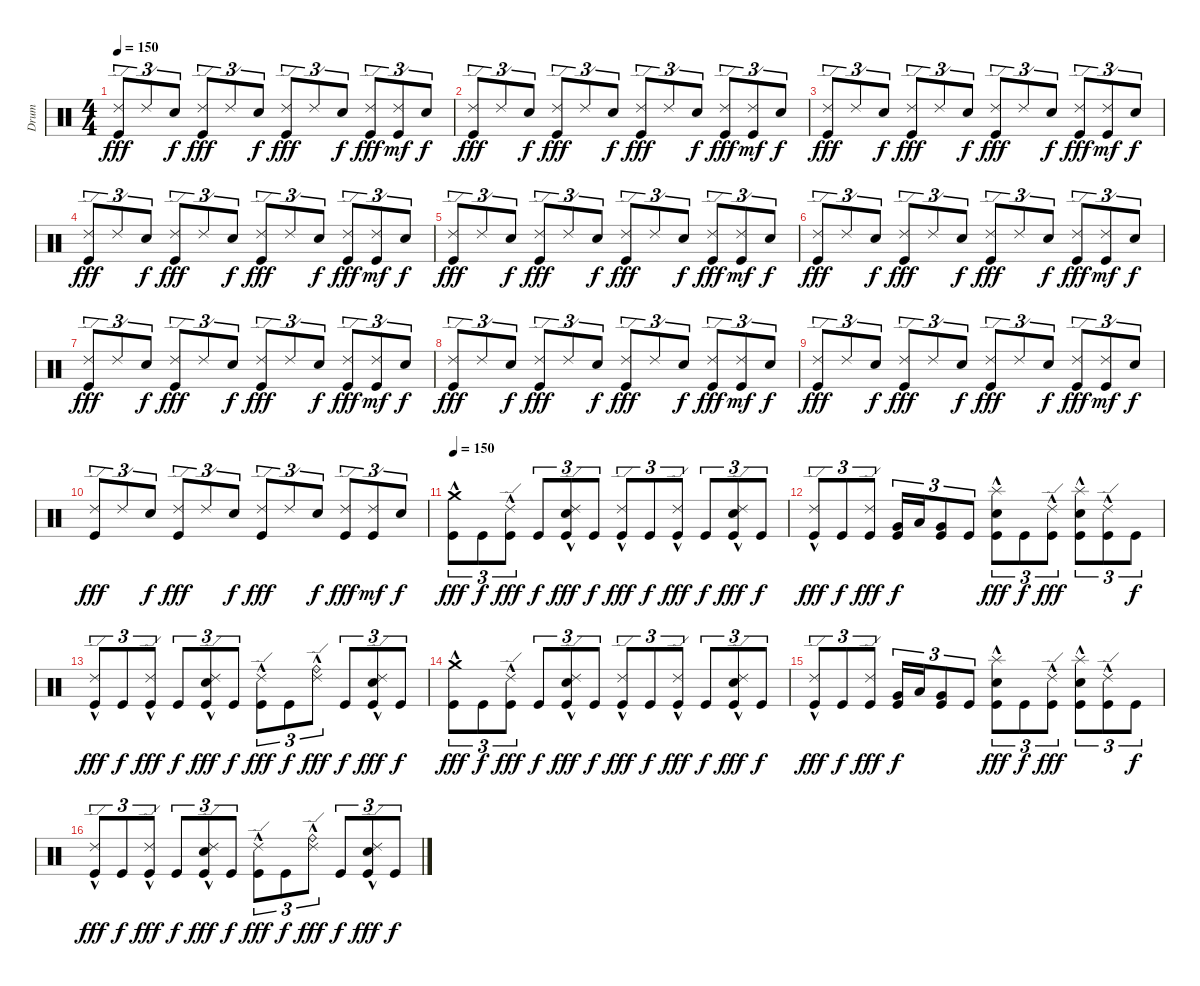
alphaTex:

\track ("Drum" "Drum") {instrument percussion}
\staff {score}
\articulation defaults
\ts (4 4)
\tempo 150
\clef neutral
\ks c
("Ride (edge) 2" "Kick (hit)").8{tu (3 2) dy fff} "Ride (edge) 2".8{tu (3 2)} "Snare (hit) 2".8{tu (3 2) dy f} ("Ride (edge) 2" "Kick (hit)").8{tu (3 2) dy fff} "Ride (edge) 2".8{tu (3 2)} "Snare (hit) 2".8{tu (3 2) dy f} ("Ride (edge) 2" "Kick (hit)").8{tu (3 2) dy fff} "Ride (edge) 2".8{tu (3 2)} "Snare (hit) 2".8{tu (3 2) dy f} ("Ride (edge) 2" "Kick (hit)").8{tu (3 2) dy fff} ("Ride (edge) 2" "Kick (hit)").8{tu (3 2) dy mf} "Snare (hit) 2".8{tu (3 2) dy f} |
("Ride (edge) 2" "Kick (hit)").8{tu (3 2) dy fff} "Ride (edge) 2".8{tu (3 2)} "Snare (hit) 2".8{tu (3 2) dy f} ("Ride (edge) 2" "Kick (hit)").8{tu (3 2) dy fff} "Ride (edge) 2".8{tu (3 2)} "Snare (hit) 2".8{tu (3 2) dy f} ("Ride (edge) 2" "Kick (hit)").8{tu (3 2) dy fff} "Ride (edge) 2".8{tu (3 2)} "Snare (hit) 2".8{tu (3 2) dy f} ("Ride (edge) 2" "Kick (hit)").8{tu (3 2) dy fff} ("Ride (edge) 2" "Kick (hit)").8{tu (3 2) dy mf} "Snare (hit) 2".8{tu (3 2) dy f} |
("Ride (edge) 2" "Kick (hit)").8{tu (3 2) dy fff} "Ride (edge) 2".8{tu (3 2)} "Snare (hit) 2".8{tu (3 2) dy f} ("Ride (edge) 2" "Kick (hit)").8{tu (3 2) dy fff} "Ride (edge) 2".8{tu (3 2)} "Snare (hit) 2".8{tu (3 2) dy f} ("Ride (edge) 2" "Kick (hit)").8{tu (3 2) dy fff} "Ride (edge) 2".8{tu (3 2)} "Snare (hit) 2".8{tu (3 2) dy f} ("Ride (edge) 2" "Kick (hit)").8{tu (3 2) dy fff} ("Ride (edge) 2" "Kick (hit)").8{tu (3 2) dy mf} "Snare (hit) 2".8{tu (3 2) dy f} |
("Ride (edge) 2" "Kick (hit)").8{tu (3 2) dy fff} "Ride (edge) 2".8{tu (3 2)} "Snare (hit) 2".8{tu (3 2) dy f} ("Ride (edge) 2" "Kick (hit)").8{tu (3 2) dy fff} "Ride (edge) 2".8{tu (3 2)} "Snare (hit) 2".8{tu (3 2) dy f} ("Ride (edge) 2" "Kick (hit)").8{tu (3 2) dy fff} "Ride (edge) 2".8{tu (3 2)} "Snare (hit) 2".8{tu (3 2) dy f} ("Ride (edge) 2" "Kick (hit)").8{tu (3 2) dy fff} ("Ride (edge) 2" "Kick (hit)").8{tu (3 2) dy mf} "Snare (hit) 2".8{tu (3 2) dy f} |
("Ride (edge) 2" "Kick (hit)").8{tu (3 2) dy fff} "Ride (edge) 2".8{tu (3 2)} "Snare (hit) 2".8{tu (3 2) dy f} ("Ride (edge) 2" "Kick (hit)").8{tu (3 2) dy fff} "Ride (edge) 2".8{tu (3 2)} "Snare (hit) 2".8{tu (3 2) dy f} ("Ride (edge) 2" "Kick (hit)").8{tu (3 2) dy fff} "Ride (edge) 2".8{tu (3 2)} "Snare (hit) 2".8{tu (3 2) dy f} ("Ride (edge) 2" "Kick (hit)").8{tu (3 2) dy fff} ("Ride (edge) 2" "Kick (hit)").8{tu (3 2) dy mf} "Snare (hit) 2".8{tu (3 2) dy f} |
("Ride (edge) 2" "Kick (hit)").8{tu (3 2) dy fff} "Ride (edge) 2".8{tu (3 2)} "Snare (hit) 2".8{tu (3 2) dy f} ("Ride (edge) 2" "Kick (hit)").8{tu (3 2) dy fff} "Ride (edge) 2".8{tu (3 2)} "Snare (hit) 2".8{tu (3 2) dy f} ("Ride (edge) 2" "Kick (hit)").8{tu (3 2) dy fff} "Ride (edge) 2".8{tu (3 2)} "Snare (hit) 2".8{tu (3 2) dy f} ("Ride (edge) 2" "Kick (hit)").8{tu (3 2) dy fff} ("Ride (edge) 2" "Kick (hit)").8{tu (3 2) dy mf} "Snare (hit) 2".8{tu (3 2) dy f} |
("Ride (edge) 2" "Kick (hit)").8{tu (3 2) dy fff} "Ride (edge) 2".8{tu (3 2)} "Snare (hit) 2".8{tu (3 2) dy f} ("Ride (edge) 2" "Kick (hit)").8{tu (3 2) dy fff} "Ride (edge) 2".8{tu (3 2)} "Snare (hit) 2".8{tu (3 2) dy f} ("Ride (edge) 2" "Kick (hit)").8{tu (3 2) dy fff} "Ride (edge) 2".8{tu (3 2)} "Snare (hit) 2".8{tu (3 2) dy f} ("Ride (edge) 2" "Kick (hit)").8{tu (3 2) dy fff} ("Ride (edge) 2" "Kick (hit)").8{tu (3 2) dy mf} "Snare (hit) 2".8{tu (3 2) dy f} |
("Ride (edge) 2" "Kick (hit)").8{tu (3 2) dy fff} "Ride (edge) 2".8{tu (3 2)} "Snare (hit) 2".8{tu (3 2) dy f} ("Ride (edge) 2" "Kick (hit)").8{tu (3 2) dy fff} "Ride (edge) 2".8{tu (3 2)} "Snare (hit) 2".8{tu (3 2) dy f} ("Ride (edge) 2" "Kick (hit)").8{tu (3 2) dy fff} "Ride (edge) 2".8{tu (3 2)} "Snare (hit) 2".8{tu (3 2) dy f} ("Ride (edge) 2" "Kick (hit)").8{tu (3 2) dy fff} ("Ride (edge) 2" "Kick (hit)").8{tu (3 2) dy mf} "Snare (hit) 2".8{tu (3 2) dy f} |
("Ride (edge) 2" "Kick (hit)").8{tu (3 2) dy fff} "Ride (edge) 2".8{tu (3 2)} "Snare (hit) 2".8{tu (3 2) dy f} ("Ride (edge) 2" "Kick (hit)").8{tu (3 2) dy fff} "Ride (edge) 2".8{tu (3 2)} "Snare (hit) 2".8{tu (3 2) dy f} ("Ride (edge) 2" "Kick (hit)").8{tu (3 2) dy fff} "Ride (edge) 2".8{tu (3 2)} "Snare (hit) 2".8{tu (3 2) dy f} ("Ride (edge) 2" "Kick (hit)").8{tu (3 2) dy fff} ("Ride (edge) 2" "Kick (hit)").8{tu (3 2) dy mf} "Snare (hit) 2".8{tu (3 2) dy f} |
("Ride (edge) 2" "Kick (hit)").8{tu (3 2) dy fff} "Ride (edge) 2".8{tu (3 2)} "Snare (hit) 2".8{tu (3 2) dy f} ("Ride (edge) 2" "Kick (hit)").8{tu (3 2) dy fff} "Ride (edge) 2".8{tu (3 2)} "Snare (hit) 2".8{tu (3 2) dy f} ("Ride (edge) 2" "Kick (hit)").8{tu (3 2) dy fff} "Ride (edge) 2".8{tu (3 2)} "Snare (hit) 2".8{tu (3 2) dy f} ("Ride (edge) 2" "Kick (hit)").8{tu (3 2) dy fff} ("Ride (edge) 2" "Kick (hit)").8{tu (3 2) dy mf} "Snare (hit) 2".8{tu (3 2) dy f} |
\tempo 150
("Crash medium (hit)"{hac} "Kick (hit)").8{tu (3 2) dy fff} "Kick (hit)".8{tu (3 2) dy f} ("Ride (edge) 2"{hac} "Kick (hit)").8{tu (3 2) dy fff} "Kick (hit)".8{tu (3 2) dy f} ("Ride (edge) 2"{hac} "Snare (hit) 2" "Kick (hit)").8{tu (3 2) dy fff} "Kick (hit)".8{tu (3 2) dy f} ("Ride (edge) 2"{hac} "Kick (hit)").8{tu (3 2) dy fff} "Kick (hit)".8{tu (3 2) dy f} ("Ride (edge) 2"{hac} "Kick (hit)").8{tu (3 2) dy fff} "Kick (hit)".8{tu (3 2) dy f} ("Ride (edge) 2"{hac} "Snare (hit) 2" "Kick (hit)").8{tu (3 2) dy fff} "Kick (hit)".8{tu (3 2) dy f} |
("Ride (edge) 2"{hac} "Kick (hit)").8{tu (3 2) dy fff} "Kick (hit)".8{tu (3 2) dy f} ("Ride (edge) 2" "Kick (hit)").8{tu (3 2) dy fff} ("Very Low Tom (hit)" "Kick (hit)").16{tu (3 2) dy f} "Low Floor Tom (hit)".16{tu (3 2)} ("Very Low Tom (hit)" "Kick (hit)").8{tu (3 2)} "Kick (hit)".8{tu (3 2)} ("Splash (hit)"{hac} "Snare (hit) 2" "Kick (hit)").8{tu (3 2) dy fff} "Kick (hit)".8{tu (3 2) dy f} ("Ride (edge) 2"{hac} "Kick (hit)").8{tu (3 2) dy fff} ("Splash (hit)"{hac} "Snare (hit) 2" "Kick (hit)").8{tu (3 2)} ("Ride (edge) 2"{hac} "Kick (hit)").8{tu (3 2)} "Kick (hit)".8{tu (3 2) dy f} |
("Ride (edge) 2"{hac} "Kick (hit)").8{tu (3 2) dy fff} "Kick (hit)".8{tu (3 2) dy f} ("Ride (edge) 2"{hac} "Kick (hit)").8{tu (3 2) dy fff} "Kick (hit)".8{tu (3 2) dy f} ("Ride (edge) 2"{hac} "Snare (hit) 2" "Kick (hit)").8{tu (3 2) dy fff} "Kick (hit)".8{tu (3 2) dy f} ("Ride (edge) 2"{hac} "Kick (hit)").8{tu (3 2) dy fff} "Kick (hit)".8{tu (3 2) dy f} ("Ride (edge) 2"{hac} "Ride (bell)").8{tu (3 2) dy fff} "Kick (hit)".8{tu (3 2) dy f} ("Ride (edge) 2"{hac} "Snare (hit) 2" "Kick (hit)").8{tu (3 2) dy fff} "Kick (hit)".8{tu (3 2) dy f} |
("Crash medium (hit)"{hac} "Kick (hit)").8{tu (3 2) dy fff} "Kick (hit)".8{tu (3 2) dy f} ("Ride (edge) 2"{hac} "Kick (hit)").8{tu (3 2) dy fff} "Kick (hit)".8{tu (3 2) dy f} ("Ride (edge) 2"{hac} "Snare (hit) 2" "Kick (hit)").8{tu (3 2) dy fff} "Kick (hit)".8{tu (3 2) dy f} ("Ride (edge) 2"{hac} "Kick (hit)").8{tu (3 2) dy fff} "Kick (hit)".8{tu (3 2) dy f} ("Ride (edge) 2"{hac} "Kick (hit)").8{tu (3 2) dy fff} "Kick (hit)".8{tu (3 2) dy f} ("Ride (edge) 2"{hac} "Snare (hit) 2" "Kick (hit)").8{tu (3 2) dy fff} "Kick (hit)".8{tu (3 2) dy f} |
("Ride (edge) 2"{hac} "Kick (hit)").8{tu (3 2) dy fff} "Kick (hit)".8{tu (3 2) dy f} ("Ride (edge) 2" "Kick (hit)").8{tu (3 2) dy fff} ("Very Low Tom (hit)" "Kick (hit)").16{tu (3 2) dy f} "Low Floor Tom (hit)".16{tu (3 2)} ("Very Low Tom (hit)" "Kick (hit)").8{tu (3 2)} "Kick (hit)".8{tu (3 2)} ("Splash (hit)"{hac} "Snare (hit) 2" "Kick (hit)").8{tu (3 2) dy fff} "Kick (hit)".8{tu (3 2) dy f} ("Ride (edge) 2"{hac} "Kick (hit)").8{tu (3 2) dy fff} ("Splash (hit)"{hac} "Snare (hit) 2" "Kick (hit)").8{tu (3 2)} ("Ride (edge) 2"{hac} "Kick (hit)").8{tu (3 2)} "Kick (hit)".8{tu (3 2) dy f} |
("Ride (edge) 2"{hac} "Kick (hit)").8{tu (3 2) dy fff} "Kick (hit)".8{tu (3 2) dy f} ("Ride (edge) 2"{hac} "Kick (hit)").8{tu (3 2) dy fff} "Kick (hit)".8{tu (3 2) dy f} ("Ride (edge) 2"{hac} "Snare (hit) 2" "Kick (hit)").8{tu (3 2) dy fff} "Kick (hit)".8{tu (3 2) dy f} ("Ride (edge) 2"{hac} "Kick (hit)").8{tu (3 2) dy fff} "Kick (hit)".8{tu (3 2) dy f} ("Ride (edge) 2"{hac} "Ride (bell)").8{tu (3 2) dy fff} "Kick (hit)".8{tu (3 2) dy f} ("Ride (edge) 2"{hac} "Snare (hit) 2" "Kick (hit)").8{tu (3 2) dy fff} "Kick (hit)".8{tu (3 2) dy f}
